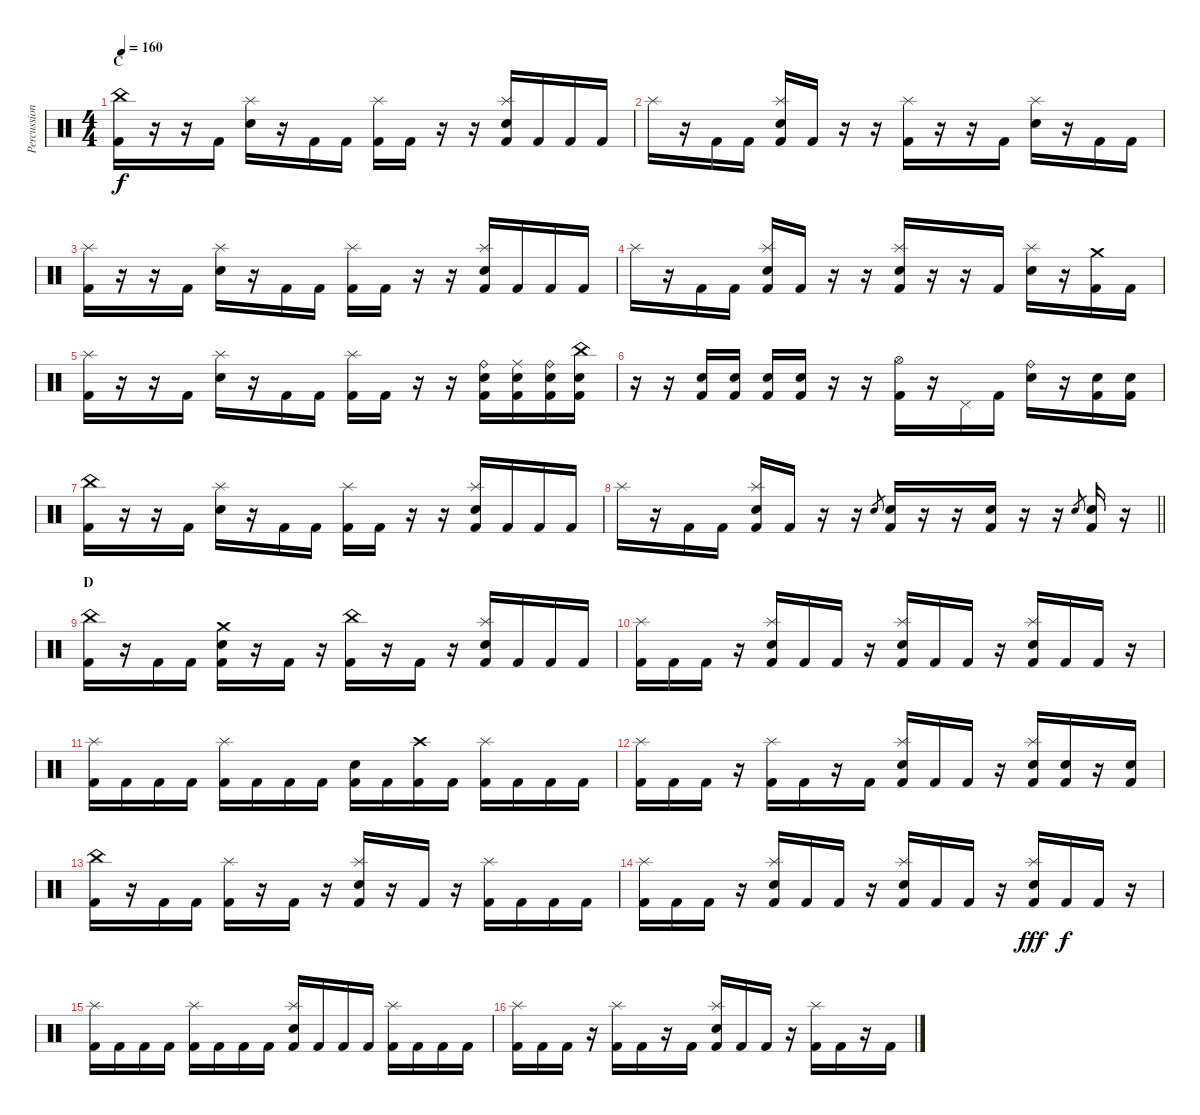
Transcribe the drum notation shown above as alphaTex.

\track ("Percussion" "Percussion") {instrument percussion}
\staff {score}
\articulation defaults
\ts (4 4)
\section ("" "C")
\tempo 160
\clef neutral
\ks c
("China (hit)" "Kick (hit) 2").16{dy f} r.16 r.16 "Kick (hit) 2".16 ("Splash (hit)" "Electric Snare (hit)").16 r.16 "Kick (hit) 2".16 "Kick (hit) 2".16 ("Splash (hit)" "Kick (hit) 2").16 "Kick (hit) 2".16 r.16 r.16 ("Splash (hit)" "Electric Snare (hit)" "Kick (hit) 2").16 "Kick (hit) 2".16 "Kick (hit) 2".16 "Kick (hit) 2".16 |
"Splash (hit)".16 r.16 "Kick (hit) 2".16 "Kick (hit) 2".16 ("Splash (hit)" "Electric Snare (hit)" "Kick (hit) 2").16 "Kick (hit) 2".16 r.16 r.16 ("Splash (hit)" "Kick (hit) 2").16 r.16 r.16 "Kick (hit) 2".16 ("Splash (hit)" "Electric Snare (hit)").16 r.16 "Kick (hit) 2".16 "Kick (hit) 2".16 |
("Splash (hit)" "Kick (hit) 2").16 r.16 r.16 "Kick (hit) 2".16 ("Splash (hit)" "Electric Snare (hit)").16 r.16 "Kick (hit) 2".16 "Kick (hit) 2".16 ("Splash (hit)" "Kick (hit) 2").16 "Kick (hit) 2".16 r.16 r.16 ("Splash (hit)" "Electric Snare (hit)" "Kick (hit) 2").16 "Kick (hit) 2".16 "Kick (hit) 2".16 "Kick (hit) 2".16 |
"Splash (hit)".16 r.16 "Kick (hit) 2".16 "Kick (hit) 2".16 ("Splash (hit)" "Electric Snare (hit)" "Kick (hit) 2").16 "Kick (hit) 2".16 r.16 r.16 ("Splash (hit)" "Electric Snare (hit)" "Kick (hit) 2").16 r.16 r.16 "Kick (hit) 2".16 ("Splash (hit)" "Electric Snare (hit)").16 r.16 ("Crash medium (hit)" "Kick (hit) 2").16 "Kick (hit) 2".16 |
("Splash (hit)" "Kick (hit) 2").16 r.16 r.16 "Kick (hit) 2".16 ("Splash (hit)" "Electric Snare (hit)").16 r.16 "Kick (hit) 2".16 "Kick (hit) 2".16 ("Splash (hit)" "Kick (hit) 2").16 "Kick (hit) 2".16 r.16 r.16 ("Ride (bell)" "Electric Snare (hit)" "Kick (hit) 2").16 ("Ride (middle)" "Electric Snare (hit)" "Kick (hit) 2").16 ("Ride (bell)" "Electric Snare (hit)" "Kick (hit) 2").16 ("China (hit)" "Electric Snare (hit)" "Kick (hit) 2").16 |
r.16 r.16 ("Electric Snare (hit)" "Kick (hit) 2").16 ("Electric Snare (hit)" "Kick (hit) 2").16 ("Electric Snare (hit)" "Kick (hit) 2").16 ("Electric Snare (hit)" "Kick (hit) 2").16 r.16 r.16 ("Hi-Hat (open)" "Kick (hit) 2").16 r.16 "Pedal Hi-Hat (hit)".16 "Kick (hit) 2".16 ("Ride (bell)" "Electric Snare (hit)").16 r.16 ("Electric Snare (hit)" "Kick (hit) 2").16 ("Electric Snare (hit)" "Kick (hit) 2").16 |
("China (hit)" "Kick (hit) 2").16 r.16 r.16 "Kick (hit) 2".16 ("Splash (hit)" "Electric Snare (hit)").16 r.16 "Kick (hit) 2".16 "Kick (hit) 2".16 ("Splash (hit)" "Kick (hit) 2").16 "Kick (hit) 2".16 r.16 r.16 ("Splash (hit)" "Electric Snare (hit)" "Kick (hit) 2").16 "Kick (hit) 2".16 "Kick (hit) 2".16 "Kick (hit) 2".16 |
\barLineRight lightlight "Splash (hit)".16
r.16 "Kick (hit) 2".16 "Kick (hit) 2".16 ("Splash (hit)" "Electric Snare (hit)" "Kick (hit) 2").16 "Kick (hit) 2".16 r.16 r.16 "Electric Snare (hit)".8{gr} ("Electric Snare (hit)" "Kick (hit) 2").16 r.16 r.16 ("Electric Snare (hit)" "Kick (hit) 2").16 r.16 r.16 "Electric Snare (hit)".8{gr} ("Electric Snare (hit)" "Kick (hit) 2").16 r.16 |
\section ("" "D")
("China (hit)" "Kick (hit) 2").16 r.16 "Kick (hit) 2".16 "Kick (hit) 2".16 ("Crash medium (hit)" "Electric Snare (hit)" "Kick (hit) 2").16 r.16 "Kick (hit) 2".16 r.16 ("China (hit)" "Kick (hit) 2").16 r.16 "Kick (hit) 2".16 r.16 ("Splash (hit)" "Electric Snare (hit)" "Kick (hit) 2").16 "Kick (hit) 2".16 "Kick (hit) 2".16 "Kick (hit) 2".16 |
("Splash (hit)" "Kick (hit) 2").16 "Kick (hit) 2".16 "Kick (hit) 2".16 r.16 ("Splash (hit)" "Electric Snare (hit)" "Kick (hit) 2").16 "Kick (hit) 2".16 "Kick (hit) 2".16 r.16 ("Splash (hit)" "Electric Snare (hit)" "Kick (hit) 2").16 "Kick (hit) 2".16 "Kick (hit) 2".16 r.16 ("Splash (hit)" "Electric Snare (hit)" "Kick (hit) 2").16 "Kick (hit) 2".16 "Kick (hit) 2".16 r.16 |
("Splash (hit)" "Kick (hit) 2").16 "Kick (hit) 2".16 "Kick (hit) 2".16 "Kick (hit) 2".16 ("Splash (hit)" "Kick (hit) 2").16 "Kick (hit) 2".16 "Kick (hit) 2".16 "Kick (hit) 2".16 ("Electric Snare (hit)" "Kick (hit) 2").16 "Kick (hit) 2".16 ("Crash high (hit)" "Kick (hit) 2").16 "Kick (hit) 2".16 ("Splash (hit)" "Kick (hit) 2").16 "Kick (hit) 2".16 "Kick (hit) 2".16 "Kick (hit) 2".16 |
("Splash (hit)" "Kick (hit) 2").16 "Kick (hit) 2".16 "Kick (hit) 2".16 r.16 ("Splash (hit)" "Kick (hit) 2").16 "Kick (hit) 2".16 r.16 "Kick (hit) 2".16 ("Splash (hit)" "Electric Snare (hit)" "Kick (hit) 2").16 "Kick (hit) 2".16 "Kick (hit) 2".16 r.16 ("Splash (hit)" "Electric Snare (hit)" "Kick (hit) 2").16 ("Electric Snare (hit)" "Kick (hit) 2").16 r.16 ("Electric Snare (hit)" "Kick (hit) 2").16 |
("China (hit)" "Kick (hit) 2").16 r.16 "Kick (hit) 2".16 "Kick (hit) 2".16 ("Splash (hit)" "Kick (hit) 2").16 r.16 "Kick (hit) 2".16 r.16 ("Splash (hit)" "Electric Snare (hit)" "Kick (hit) 2").16 r.16 "Kick (hit) 2".16 r.16 ("Splash (hit)" "Kick (hit) 2").16 "Kick (hit) 2".16 "Kick (hit) 2".16 "Kick (hit) 2".16 |
("Splash (hit)" "Kick (hit) 2").16 "Kick (hit) 2".16 "Kick (hit) 2".16 r.16 ("Splash (hit)" "Electric Snare (hit)" "Kick (hit) 2").16 "Kick (hit) 2".16 "Kick (hit) 2".16 r.16 ("Splash (hit)" "Electric Snare (hit)" "Kick (hit) 2").16 "Kick (hit) 2".16 "Kick (hit) 2".16 r.16 ("Splash (hit)" "Electric Snare (hit)" "Kick (hit) 2").16{dy fff} "Kick (hit) 2".16{dy f} "Kick (hit) 2".16 r.16 |
("Splash (hit)" "Kick (hit) 2").16 "Kick (hit) 2".16 "Kick (hit) 2".16 "Kick (hit) 2".16 ("Splash (hit)" "Kick (hit) 2").16 "Kick (hit) 2".16 "Kick (hit) 2".16 "Kick (hit) 2".16 ("Splash (hit)" "Electric Snare (hit)" "Kick (hit) 2").16 "Kick (hit) 2".16 "Kick (hit) 2".16 "Kick (hit) 2".16 ("Splash (hit)" "Kick (hit) 2").16 "Kick (hit) 2".16 "Kick (hit) 2".16 "Kick (hit) 2".16 |
("Splash (hit)" "Kick (hit) 2").16 "Kick (hit) 2".16 "Kick (hit) 2".16 r.16 ("Splash (hit)" "Kick (hit) 2").16 "Kick (hit) 2".16 r.16 "Kick (hit) 2".16 ("Splash (hit)" "Electric Snare (hit)" "Kick (hit) 2").16 "Kick (hit) 2".16 "Kick (hit) 2".16 r.16 ("Splash (hit)" "Kick (hit) 2").16 "Kick (hit) 2".16 r.16 "Kick (hit) 2".16
